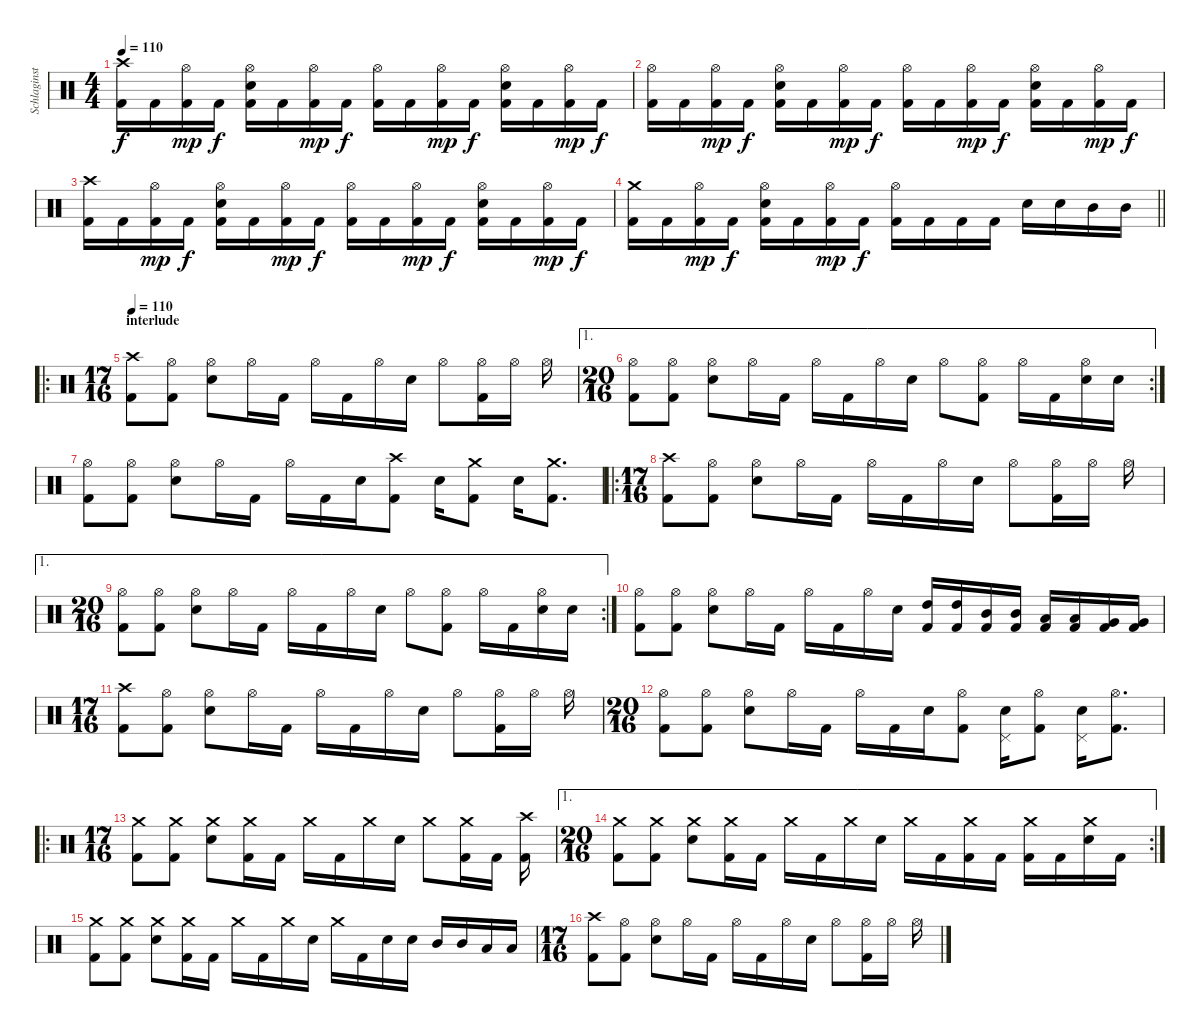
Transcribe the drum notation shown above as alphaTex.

\track ("Schlaginstrumente - Auswahl" "Schlaginst") {instrument percussion}
\staff {score}
\articulation defaults
\ts (4 4)
\tempo 110
\clef neutral
\ks c
("Crash high (hit)" "Kick (hit) 2").16{dy f} "Kick (hit) 2".16 ("Hi-Hat (open)" "Kick (hit) 2").16{dy mp} "Kick (hit) 2".16{dy f} ("Hi-Hat (open)" "Electric Snare (hit)" "Kick (hit) 2").16 "Kick (hit) 2".16 ("Hi-Hat (open)" "Kick (hit) 2").16{dy mp} "Kick (hit) 2".16{dy f} ("Hi-Hat (open)" "Kick (hit) 2").16 "Kick (hit) 2".16 ("Hi-Hat (open)" "Kick (hit) 2").16{dy mp} "Kick (hit) 2".16{dy f} ("Hi-Hat (open)" "Electric Snare (hit)" "Kick (hit) 2").16 "Kick (hit) 2".16 ("Hi-Hat (open)" "Kick (hit) 2").16{dy mp} "Kick (hit) 2".16{dy f} |
("Hi-Hat (open)" "Kick (hit) 2").16 "Kick (hit) 2".16 ("Hi-Hat (open)" "Kick (hit) 2").16{dy mp} "Kick (hit) 2".16{dy f} ("Hi-Hat (open)" "Electric Snare (hit)" "Kick (hit) 2").16 "Kick (hit) 2".16 ("Hi-Hat (open)" "Kick (hit) 2").16{dy mp} "Kick (hit) 2".16{dy f} ("Hi-Hat (open)" "Kick (hit) 2").16 "Kick (hit) 2".16 ("Hi-Hat (open)" "Kick (hit) 2").16{dy mp} "Kick (hit) 2".16{dy f} ("Hi-Hat (open)" "Electric Snare (hit)" "Kick (hit) 2").16 "Kick (hit) 2".16 ("Hi-Hat (open)" "Kick (hit) 2").16{dy mp} "Kick (hit) 2".16{dy f} |
("Crash high (hit)" "Kick (hit) 2").16 "Kick (hit) 2".16 ("Hi-Hat (open)" "Kick (hit) 2").16{dy mp} "Kick (hit) 2".16{dy f} ("Hi-Hat (open)" "Electric Snare (hit)" "Kick (hit) 2").16 "Kick (hit) 2".16 ("Hi-Hat (open)" "Kick (hit) 2").16{dy mp} "Kick (hit) 2".16{dy f} ("Hi-Hat (open)" "Kick (hit) 2").16 "Kick (hit) 2".16 ("Hi-Hat (open)" "Kick (hit) 2").16{dy mp} "Kick (hit) 2".16{dy f} ("Hi-Hat (open)" "Electric Snare (hit)" "Kick (hit) 2").16 "Kick (hit) 2".16 ("Hi-Hat (open)" "Kick (hit) 2").16{dy mp} "Kick (hit) 2".16{dy f} |
\barLineRight lightlight
("Crash medium (hit)" "Kick (hit) 2").16 "Kick (hit) 2".16 ("Hi-Hat (open)" "Kick (hit) 2").16{dy mp} "Kick (hit) 2".16{dy f} ("Hi-Hat (open)" "Electric Snare (hit)" "Kick (hit) 2").16 "Kick (hit) 2".16 ("Hi-Hat (open)" "Kick (hit) 2").16{dy mp} "Kick (hit) 2".16{dy f} ("Hi-Hat (open)" "Kick (hit) 2").16 "Kick (hit) 2".16 "Kick (hit) 2".16 "Kick (hit) 2".16 "Electric Snare (hit)".16 "Electric Snare (hit)".16 "Mid Tom (hit)".16 "Mid Tom (hit)".16 |
\ro
\ts (17 16)
\section ("" "interlude")
\tempo 110
("Crash high (hit)" "Kick (hit) 2").8 ("Hi-Hat (open)" "Kick (hit) 2").8 ("Hi-Hat (open)" "Electric Snare (hit)").8 "Hi-Hat (open)".16 "Kick (hit) 2".16 "Hi-Hat (open)".16 "Kick (hit) 2".16 "Hi-Hat (open)".16 "Electric Snare (hit)".16 "Hi-Hat (open)".8 ("Hi-Hat (open)" "Kick (hit) 2").16 "Hi-Hat (open)".16 "Hi-Hat (open)".16 |
\ae 1
\rc 2
\ts (20 16)
("Hi-Hat (open)" "Kick (hit) 2").8 ("Hi-Hat (open)" "Kick (hit) 2").8 ("Hi-Hat (open)" "Electric Snare (hit)").8 "Hi-Hat (open)".16 "Kick (hit) 2".16 "Hi-Hat (open)".16 "Kick (hit) 2".16 "Hi-Hat (open)".16 "Electric Snare (hit)".16 "Hi-Hat (open)".8 ("Hi-Hat (open)" "Kick (hit) 2").8 "Hi-Hat (open)".16 "Kick (hit) 2".16 ("Hi-Hat (open)" "Electric Snare (hit)").16 "Electric Snare (hit)".16 |
("Hi-Hat (open)" "Kick (hit) 2").8 ("Hi-Hat (open)" "Kick (hit) 2").8 ("Hi-Hat (open)" "Electric Snare (hit)").8 "Hi-Hat (open)".16 "Kick (hit) 2".16 "Hi-Hat (open)".16 "Kick (hit) 2".16 "Electric Snare (hit)".16 ("Crash high (hit)" "Kick (hit) 2").8 "Electric Snare (hit)".16 ("Crash medium (hit)" "Kick (hit) 2").8 "Electric Snare (hit)".16 ("Crash medium (hit)" "Kick (hit) 2").8{d} |
\ro
\ts (17 16)
("Crash high (hit)" "Kick (hit) 2").8 ("Hi-Hat (open)" "Kick (hit) 2").8 ("Hi-Hat (open)" "Electric Snare (hit)").8 "Hi-Hat (open)".16 "Kick (hit) 2".16 "Hi-Hat (open)".16 "Kick (hit) 2".16 "Hi-Hat (open)".16 "Electric Snare (hit)".16 "Hi-Hat (open)".8 ("Hi-Hat (open)" "Kick (hit) 2").16 "Hi-Hat (open)".16 "Hi-Hat (open)".16 |
\ae 1
\rc 2
\ts (20 16)
("Hi-Hat (open)" "Kick (hit) 2").8 ("Hi-Hat (open)" "Kick (hit) 2").8 ("Hi-Hat (open)" "Electric Snare (hit)").8 "Hi-Hat (open)".16 "Kick (hit) 2".16 "Hi-Hat (open)".16 "Kick (hit) 2".16 "Hi-Hat (open)".16 "Electric Snare (hit)".16 "Hi-Hat (open)".8 ("Hi-Hat (open)" "Kick (hit) 2").8 "Hi-Hat (open)".16 "Kick (hit) 2".16 ("Hi-Hat (open)" "Electric Snare (hit)").16 "Electric Snare (hit)".16 |
("Hi-Hat (open)" "Kick (hit) 2").8 ("Hi-Hat (open)" "Kick (hit) 2").8 ("Hi-Hat (open)" "Electric Snare (hit)").8 "Hi-Hat (open)".16 "Kick (hit) 2".16 "Hi-Hat (open)".16 "Kick (hit) 2".16 "Hi-Hat (open)".16 "Electric Snare (hit)".16 ("High Tom (hit)" "Kick (hit) 2").16 ("High Tom (hit)" "Kick (hit) 2").16 ("Mid Tom (hit)" "Kick (hit) 2").16 ("Mid Tom (hit)" "Kick (hit) 2").16 ("Low Tom (hit)" "Kick (hit) 2").16 ("Low Tom (hit)" "Kick (hit) 2").16 ("Very Low Tom (hit)" "Kick (hit) 2").16 ("Very Low Tom (hit)" "Kick (hit) 2").16 |
\ts (17 16)
("Crash high (hit)" "Kick (hit) 2").8 ("Hi-Hat (open)" "Kick (hit) 2").8 ("Hi-Hat (open)" "Electric Snare (hit)").8 "Hi-Hat (open)".16 "Kick (hit) 2".16 "Hi-Hat (open)".16 "Kick (hit) 2".16 "Hi-Hat (open)".16 "Electric Snare (hit)".16 "Hi-Hat (open)".8 ("Hi-Hat (open)" "Kick (hit) 2").16 "Hi-Hat (open)".16 "Hi-Hat (open)".16 |
\ts (20 16)
("Hi-Hat (open)" "Kick (hit) 2").8 ("Hi-Hat (open)" "Kick (hit) 2").8 ("Hi-Hat (open)" "Electric Snare (hit)").8 "Hi-Hat (open)".16 "Kick (hit) 2".16 "Hi-Hat (open)".16 "Kick (hit) 2".16 "Electric Snare (hit)".16 ("Hi-Hat (open)" "Kick (hit) 2").8 ("Pedal Hi-Hat (hit)" "Electric Snare (hit)").16 ("Hi-Hat (open)" "Kick (hit) 2").8 ("Pedal Hi-Hat (hit)" "Electric Snare (hit)").16 ("Hi-Hat (open)" "Kick (hit) 2").8{d} |
\ro
\ts (17 16)
("Crash medium (hit)" "Kick (hit) 2").8 ("Crash medium (hit)" "Kick (hit) 2").8 ("Crash medium (hit)" "Electric Snare (hit)").8 ("Crash medium (hit)" "Kick (hit) 2").16 "Kick (hit) 2".16 "Crash medium (hit)".16 "Kick (hit) 2".16 "Crash medium (hit)".16 "Electric Snare (hit)".16 "Crash medium (hit)".8 ("Crash medium (hit)" "Kick (hit) 2").16 "Kick (hit) 2".16 ("Crash high (hit)" "Kick (hit) 2").16 |
\ae 1
\rc 2
\ts (20 16)
("Crash medium (hit)" "Kick (hit) 2").8 ("Crash medium (hit)" "Kick (hit) 2").8 ("Crash medium (hit)" "Electric Snare (hit)").8 ("Crash medium (hit)" "Kick (hit) 2").16 "Kick (hit) 2".16 "Crash medium (hit)".16 "Kick (hit) 2".16 "Crash medium (hit)".16 "Electric Snare (hit)".16 "Crash medium (hit)".16 "Kick (hit) 2".16 ("Crash medium (hit)" "Kick (hit) 2").16 "Kick (hit) 2".16 ("Crash medium (hit)" "Kick (hit) 2").16 "Kick (hit) 2".16 ("Crash medium (hit)" "Electric Snare (hit)").16 "Kick (hit) 2".16 |
("Crash medium (hit)" "Kick (hit) 2").8 ("Crash medium (hit)" "Kick (hit) 2").8 ("Crash medium (hit)" "Electric Snare (hit)").8 ("Crash medium (hit)" "Kick (hit) 2").16 "Kick (hit) 2".16 "Crash medium (hit)".16 "Kick (hit) 2".16 "Crash medium (hit)".16 "Electric Snare (hit)".16 "Crash medium (hit)".16 "Kick (hit) 2".16 "Electric Snare (hit)".16 "Electric Snare (hit)".16 "Mid Tom (hit)".16 "Mid Tom (hit)".16 "Low Tom (hit)".16 "Low Tom (hit)".16 |
\ts (17 16)
("Crash high (hit)" "Kick (hit) 2").8 ("Hi-Hat (open)" "Kick (hit) 2").8 ("Hi-Hat (open)" "Electric Snare (hit)").8 "Hi-Hat (open)".16 "Kick (hit) 2".16 "Hi-Hat (open)".16 "Kick (hit) 2".16 "Hi-Hat (open)".16 "Electric Snare (hit)".16 "Hi-Hat (open)".8 ("Hi-Hat (open)" "Kick (hit) 2").16 "Hi-Hat (open)".16 "Hi-Hat (open)".16
